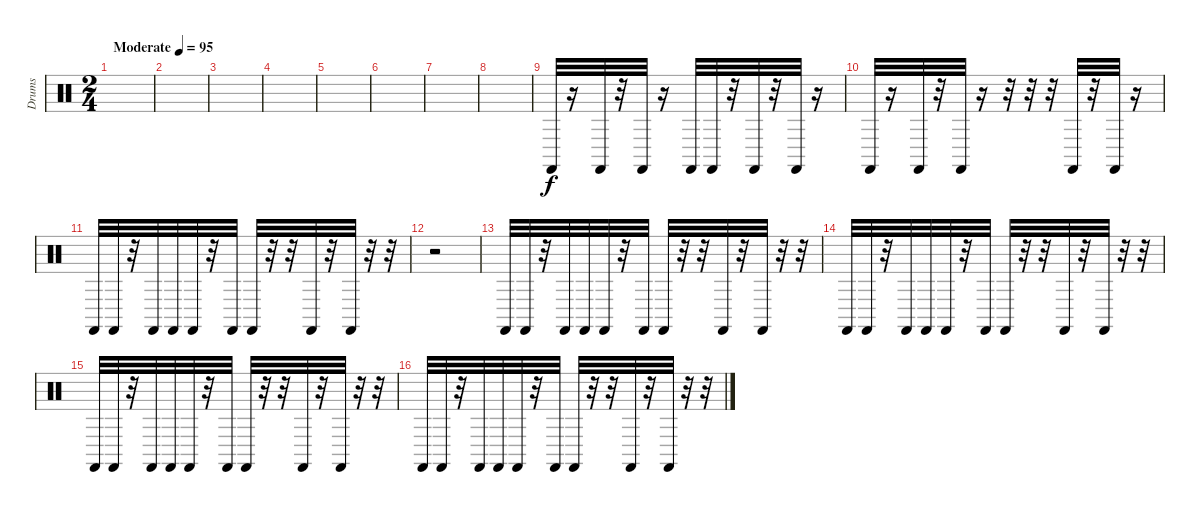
\track ("Drums" "Drums") {instrument percussion}
\staff {score}
\articulation defaults
\ts (2 4)
\tempo (95 "Moderate")
\clef neutral
\ks c
|
|
|
|
|
|
|
|
"Castanets (hit)".32 r.16 "Castanets (hit)".32 r.32 "Castanets (hit)".32 r.16 "Castanets (hit)".32 "Castanets (hit)".32 r.32 "Castanets (hit)".32 r.32 "Castanets (hit)".32 r.16 |
"Castanets (hit)".32 r.16 "Castanets (hit)".32 r.32 "Castanets (hit)".32 r.16 r.32 r.32 r.32 "Castanets (hit)".32 r.32 "Castanets (hit)".32 r.16 |
"Castanets (hit)".32 "Castanets (hit)".32 r.32 "Castanets (hit)".32 "Castanets (hit)".32 "Castanets (hit)".32 r.32 "Castanets (hit)".32 "Castanets (hit)".32 r.32 r.32 "Castanets (hit)".32 r.32 "Castanets (hit)".32 r.32 r.32 |
r.2 |
"Castanets (hit)".32 "Castanets (hit)".32 r.32 "Castanets (hit)".32 "Castanets (hit)".32 "Castanets (hit)".32 r.32 "Castanets (hit)".32 "Castanets (hit)".32 r.32 r.32 "Castanets (hit)".32 r.32 "Castanets (hit)".32 r.32 r.32 |
"Castanets (hit)".32 "Castanets (hit)".32 r.32 "Castanets (hit)".32 "Castanets (hit)".32 "Castanets (hit)".32 r.32 "Castanets (hit)".32 "Castanets (hit)".32 r.32 r.32 "Castanets (hit)".32 r.32 "Castanets (hit)".32 r.32 r.32 |
"Castanets (hit)".32 "Castanets (hit)".32 r.32 "Castanets (hit)".32 "Castanets (hit)".32 "Castanets (hit)".32 r.32 "Castanets (hit)".32 "Castanets (hit)".32 r.32 r.32 "Castanets (hit)".32 r.32 "Castanets (hit)".32 r.32 r.32 |
"Castanets (hit)".32 "Castanets (hit)".32 r.32 "Castanets (hit)".32 "Castanets (hit)".32 "Castanets (hit)".32 r.32 "Castanets (hit)".32 "Castanets (hit)".32 r.32 r.32 "Castanets (hit)".32 r.32 "Castanets (hit)".32 r.32 r.32
